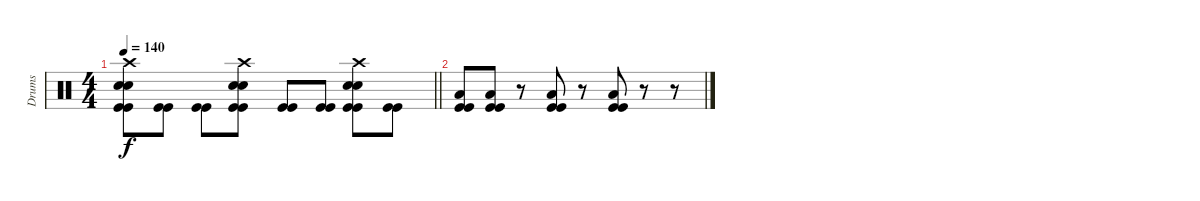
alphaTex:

\track ("Drums" "Drums") {instrument percussion}
\staff {score}
\articulation defaults
\ts (4 4)
\tempo 140
\clef neutral
\barLineRight lightlight
\ks c
("Crash high (hit)" "Snare (hit) 2" "Snare (hit) 2" "Kick (hit)" "Kick (hit)").8{dy f} ("Kick (hit)" "Kick (hit)").8 ("Kick (hit)" "Kick (hit)").8 ("Crash high (hit)" "Snare (hit) 2" "Snare (hit) 2" "Kick (hit)" "Kick (hit)").8 ("Kick (hit)" "Kick (hit)").8 ("Kick (hit)" "Kick (hit)").8 ("Crash high (hit)" "Snare (hit) 2" "Snare (hit) 2" "Kick (hit)" "Kick (hit)").8 ("Kick (hit)" "Kick (hit)").8 |
("Low Floor Tom (hit)" "Kick (hit)" "Kick (hit)").8 ("Low Floor Tom (hit)" "Kick (hit)" "Kick (hit)").8 r.8 ("Low Floor Tom (hit)" "Kick (hit)" "Kick (hit)").8 r.8 ("Low Floor Tom (hit)" "Kick (hit)" "Kick (hit)").8 r.8 r.8
